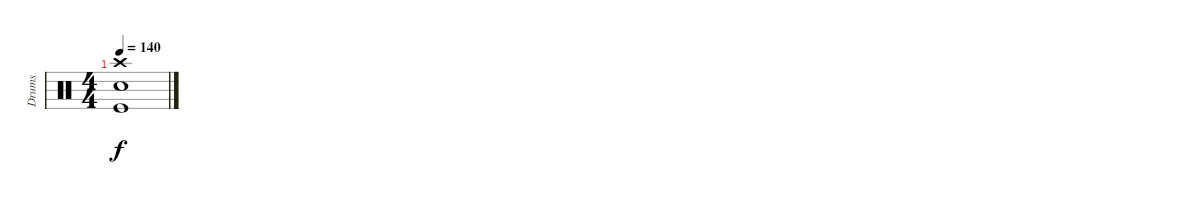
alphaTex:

\track ("Drums" "Drums") {instrument percussion}
\staff {score}
\articulation defaults
\ts (4 4)
\tempo 140
\clef neutral
\ks c
("Crash high (hit)" "Snare (hit) 2" "Kick (hit)").1{dy f}
